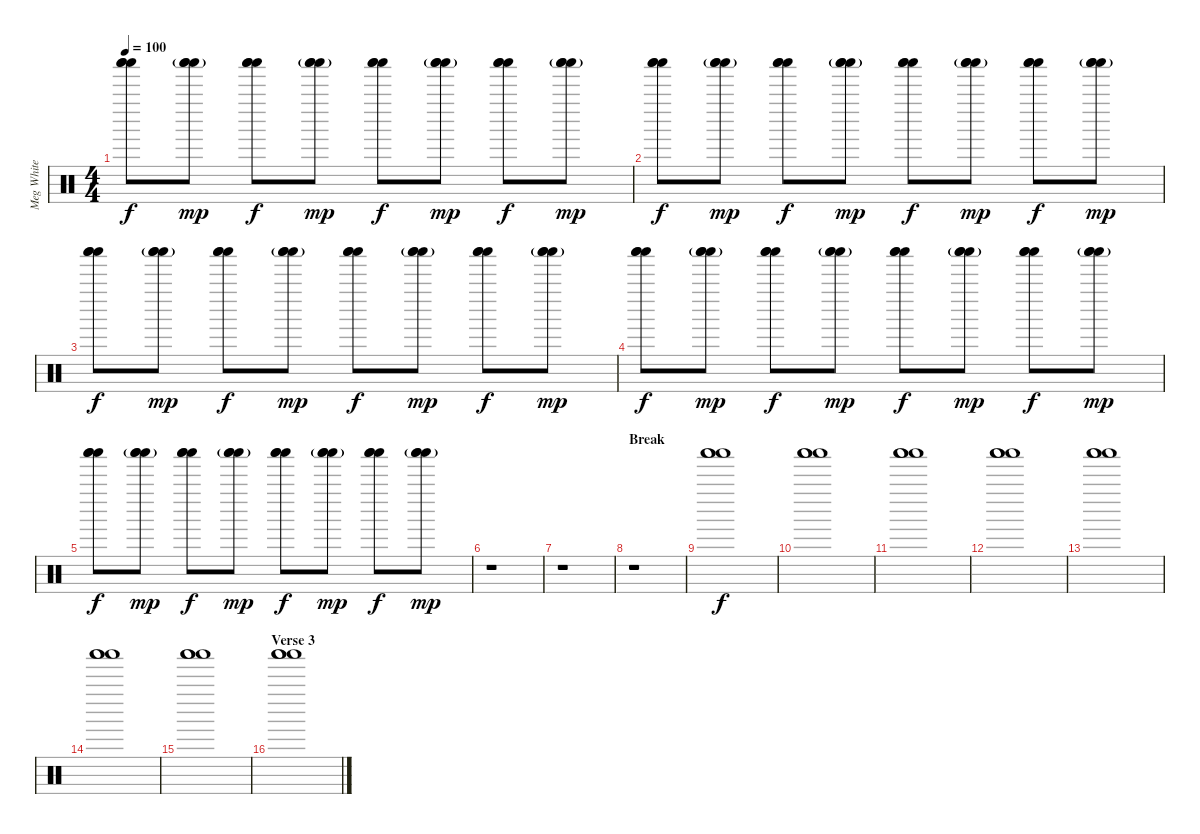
\track ("Meg White" "Meg White") {instrument percussion}
\staff {score}
\articulation defaults
\ts (4 4)
\tempo 100
\clef neutral
\ks c
("Shaker (hit)" "Shaker (hit)" "Shaker (hit)").8{dy f} ("Shaker (hit)"{g} "Shaker (hit)"{g} "Shaker (hit)"{g}).8{dy mp} ("Shaker (hit)" "Shaker (hit)" "Shaker (hit)").8{dy f} ("Shaker (hit)"{g} "Shaker (hit)"{g} "Shaker (hit)"{g}).8{dy mp} ("Shaker (hit)" "Shaker (hit)" "Shaker (hit)").8{dy f} ("Shaker (hit)"{g} "Shaker (hit)"{g} "Shaker (hit)"{g}).8{dy mp} ("Shaker (hit)" "Shaker (hit)" "Shaker (hit)").8{dy f} ("Shaker (hit)"{g} "Shaker (hit)"{g} "Shaker (hit)"{g}).8{dy mp} |
("Shaker (hit)" "Shaker (hit)" "Shaker (hit)").8{dy f} ("Shaker (hit)"{g} "Shaker (hit)"{g} "Shaker (hit)"{g}).8{dy mp} ("Shaker (hit)" "Shaker (hit)" "Shaker (hit)").8{dy f} ("Shaker (hit)"{g} "Shaker (hit)"{g} "Shaker (hit)"{g}).8{dy mp} ("Shaker (hit)" "Shaker (hit)" "Shaker (hit)").8{dy f} ("Shaker (hit)"{g} "Shaker (hit)"{g} "Shaker (hit)"{g}).8{dy mp} ("Shaker (hit)" "Shaker (hit)" "Shaker (hit)").8{dy f} ("Shaker (hit)"{g} "Shaker (hit)"{g} "Shaker (hit)"{g}).8{dy mp} |
("Shaker (hit)" "Shaker (hit)" "Shaker (hit)").8{dy f} ("Shaker (hit)"{g} "Shaker (hit)"{g} "Shaker (hit)"{g}).8{dy mp} ("Shaker (hit)" "Shaker (hit)" "Shaker (hit)").8{dy f} ("Shaker (hit)"{g} "Shaker (hit)"{g} "Shaker (hit)"{g}).8{dy mp} ("Shaker (hit)" "Shaker (hit)" "Shaker (hit)").8{dy f} ("Shaker (hit)"{g} "Shaker (hit)"{g} "Shaker (hit)"{g}).8{dy mp} ("Shaker (hit)" "Shaker (hit)" "Shaker (hit)").8{dy f} ("Shaker (hit)"{g} "Shaker (hit)"{g} "Shaker (hit)"{g}).8{dy mp} |
("Shaker (hit)" "Shaker (hit)" "Shaker (hit)").8{dy f} ("Shaker (hit)"{g} "Shaker (hit)"{g} "Shaker (hit)"{g}).8{dy mp} ("Shaker (hit)" "Shaker (hit)" "Shaker (hit)").8{dy f} ("Shaker (hit)"{g} "Shaker (hit)"{g} "Shaker (hit)"{g}).8{dy mp} ("Shaker (hit)" "Shaker (hit)" "Shaker (hit)").8{dy f} ("Shaker (hit)"{g} "Shaker (hit)"{g} "Shaker (hit)"{g}).8{dy mp} ("Shaker (hit)" "Shaker (hit)" "Shaker (hit)").8{dy f} ("Shaker (hit)"{g} "Shaker (hit)"{g} "Shaker (hit)"{g}).8{dy mp} |
("Shaker (hit)" "Shaker (hit)" "Shaker (hit)").8{dy f} ("Shaker (hit)"{g} "Shaker (hit)"{g} "Shaker (hit)"{g}).8{dy mp} ("Shaker (hit)" "Shaker (hit)" "Shaker (hit)").8{dy f} ("Shaker (hit)"{g} "Shaker (hit)"{g} "Shaker (hit)"{g}).8{dy mp} ("Shaker (hit)" "Shaker (hit)" "Shaker (hit)").8{dy f} ("Shaker (hit)"{g} "Shaker (hit)"{g} "Shaker (hit)"{g}).8{dy mp} ("Shaker (hit)" "Shaker (hit)" "Shaker (hit)").8{dy f} ("Shaker (hit)"{g} "Shaker (hit)"{g} "Shaker (hit)"{g}).8{dy mp} |
r.1 |
r.1 |
\section ("" "Break")
r.1 |
("Shaker (hit)" "Shaker (hit)" "Shaker (hit)").1{dy f} |
("Shaker (hit)" "Shaker (hit)" "Shaker (hit)").1 |
("Shaker (hit)" "Shaker (hit)" "Shaker (hit)").1 |
("Shaker (hit)" "Shaker (hit)" "Shaker (hit)").1 |
("Shaker (hit)" "Shaker (hit)" "Shaker (hit)").1 |
("Shaker (hit)" "Shaker (hit)" "Shaker (hit)").1 |
("Shaker (hit)" "Shaker (hit)" "Shaker (hit)").1 |
\section ("" "Verse 3")
("Shaker (hit)" "Shaker (hit)" "Shaker (hit)").1
